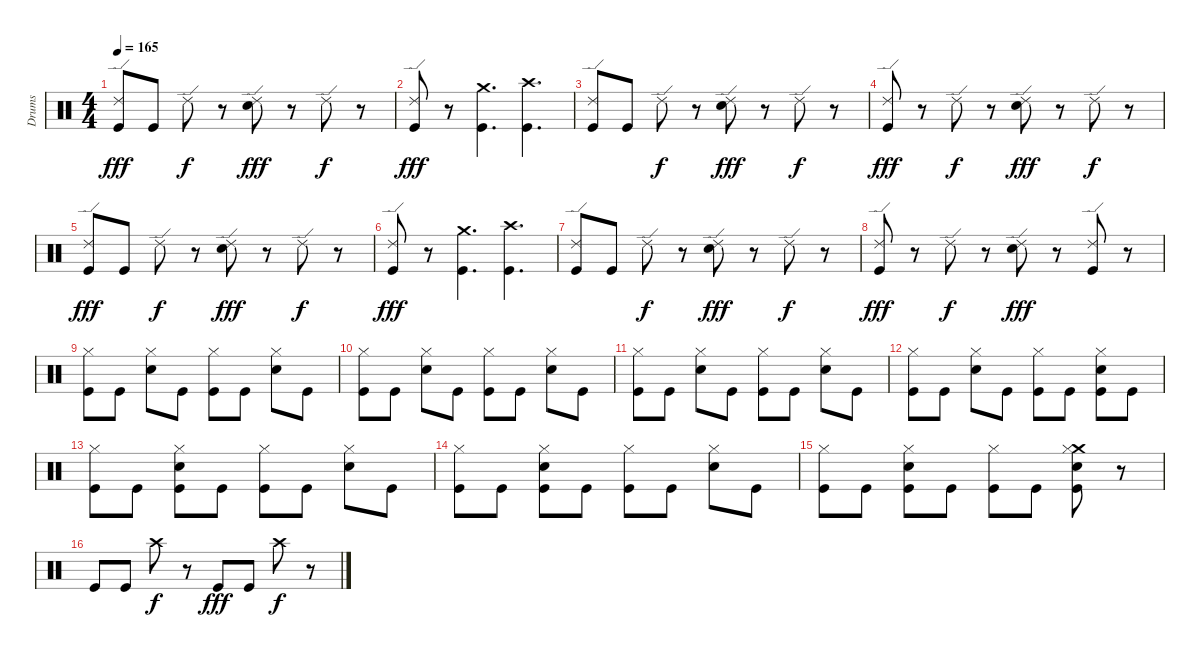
\track ("Drums" "Drums") {instrument percussion}
\staff {score}
\articulation defaults
\ts (4 4)
\tempo 165
\clef neutral
\ks c
("Ride (edge) 2" "Kick (hit)").8{dy fff} "Kick (hit)".8 "Ride (edge) 2".8{dy f} r.8 ("Ride (edge) 2" "Snare (hit) 2").8{dy fff} r.8 "Ride (edge) 2".8{dy f} r.8 |
("Ride (edge) 2" "Kick (hit)").8{dy fff} r.8 ("Crash medium (hit)" "Kick (hit)").4{d} ("Crash high (hit)" "Kick (hit)").4{d} |
("Ride (edge) 2" "Kick (hit)").8 "Kick (hit)".8 "Ride (edge) 2".8{dy f} r.8 ("Ride (edge) 2" "Snare (hit) 2").8{dy fff} r.8 "Ride (edge) 2".8{dy f} r.8 |
("Ride (edge) 2" "Kick (hit)").8{dy fff} r.8 "Ride (edge) 2".8{dy f} r.8 ("Ride (edge) 2" "Snare (hit) 2").8{dy fff} r.8 "Ride (edge) 2".8{dy f} r.8 |
("Ride (edge) 2" "Kick (hit)").8{dy fff} "Kick (hit)".8 "Ride (edge) 2".8{dy f} r.8 ("Ride (edge) 2" "Snare (hit) 2").8{dy fff} r.8 "Ride (edge) 2".8{dy f} r.8 |
("Ride (edge) 2" "Kick (hit)").8{dy fff} r.8 ("Crash medium (hit)" "Kick (hit)").4{d} ("Crash high (hit)" "Kick (hit)").4{d} |
("Ride (edge) 2" "Kick (hit)").8 "Kick (hit)".8 "Ride (edge) 2".8{dy f} r.8 ("Ride (edge) 2" "Snare (hit) 2").8{dy fff} r.8 "Ride (edge) 2".8{dy f} r.8 |
("Ride (edge) 2" "Kick (hit)").8{dy fff} r.8 "Ride (edge) 2".8{dy f} r.8 ("Ride (edge) 2" "Snare (hit) 2").8{dy fff} r.8 ("Ride (edge) 2" "Kick (hit)").8 r.8 |
("Hi-Hat (closed)" "Kick (hit)").8 "Kick (hit)".8 ("Hi-Hat (closed)" "Snare (hit) 2").8 "Kick (hit)".8 ("Hi-Hat (closed)" "Kick (hit)").8 "Kick (hit)".8 ("Hi-Hat (closed)" "Snare (hit) 2").8 "Kick (hit)".8 |
("Hi-Hat (closed)" "Kick (hit)").8 "Kick (hit)".8 ("Hi-Hat (closed)" "Snare (hit) 2").8 "Kick (hit)".8 ("Hi-Hat (closed)" "Kick (hit)").8 "Kick (hit)".8 ("Hi-Hat (closed)" "Snare (hit) 2").8 "Kick (hit)".8 |
("Hi-Hat (closed)" "Kick (hit)").8 "Kick (hit)".8 ("Hi-Hat (closed)" "Snare (hit) 2").8 "Kick (hit)".8 ("Hi-Hat (closed)" "Kick (hit)").8 "Kick (hit)".8 ("Hi-Hat (closed)" "Snare (hit) 2").8 "Kick (hit)".8 |
("Hi-Hat (closed)" "Kick (hit)").8 "Kick (hit)".8 ("Hi-Hat (closed)" "Snare (hit) 2").8 "Kick (hit)".8 ("Hi-Hat (closed)" "Kick (hit)").8 "Kick (hit)".8 ("Hi-Hat (closed)" "Snare (hit) 2" "Kick (hit)").8 "Kick (hit)".8 |
("Hi-Hat (closed)" "Kick (hit)").8 "Kick (hit)".8 ("Hi-Hat (closed)" "Snare (hit) 2" "Kick (hit)").8 "Kick (hit)".8 ("Hi-Hat (closed)" "Kick (hit)").8 "Kick (hit)".8 ("Hi-Hat (closed)" "Snare (hit) 2").8 "Kick (hit)".8 |
("Hi-Hat (closed)" "Kick (hit)").8 "Kick (hit)".8 ("Hi-Hat (closed)" "Snare (hit) 2" "Kick (hit)").8 "Kick (hit)".8 ("Hi-Hat (closed)" "Kick (hit)").8 "Kick (hit)".8 ("Hi-Hat (closed)" "Snare (hit) 2").8 "Kick (hit)".8 |
("Hi-Hat (closed)" "Kick (hit)").8 "Kick (hit)".8 ("Hi-Hat (closed)" "Snare (hit) 2" "Kick (hit)").8 "Kick (hit)".8 ("Hi-Hat (closed)" "Kick (hit)").8 "Kick (hit)".8 ("Crash medium (hit)" "Hi-Hat (closed)" "Snare (hit) 2" "Kick (hit)").8 r.8 |
"Kick (hit)".8 "Kick (hit)".8 "Crash high (hit)".8{dy f} r.8 "Kick (hit)".8{dy fff} "Kick (hit)".8 "Crash high (hit)".8{dy f} r.8
